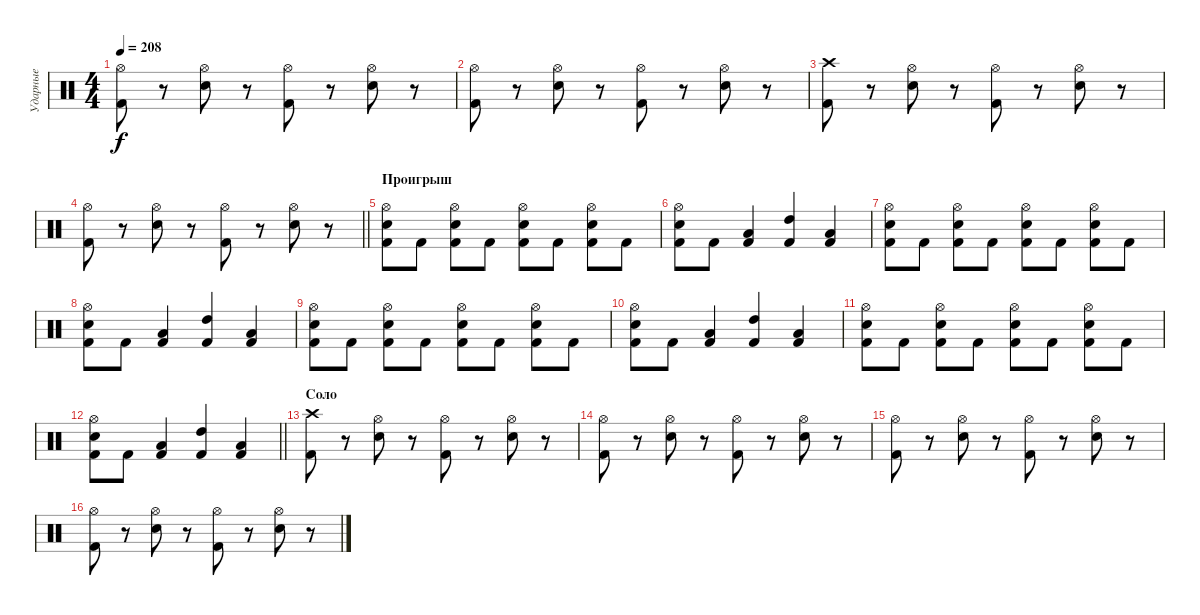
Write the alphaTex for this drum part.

\track ("Ударные" "Ударные") {instrument percussion}
\staff {score}
\articulation defaults
\ts (4 4)
\tempo 208
\clef neutral
\ks c
("Hi-Hat (open)" "Kick (hit) 2").8{dy f} r.8 ("Hi-Hat (open)" "Electric Snare (hit)").8 r.8 ("Hi-Hat (open)" "Kick (hit) 2").8 r.8 ("Hi-Hat (open)" "Electric Snare (hit)").8 r.8 |
("Hi-Hat (open)" "Kick (hit) 2").8 r.8 ("Hi-Hat (open)" "Electric Snare (hit)").8 r.8 ("Hi-Hat (open)" "Kick (hit) 2").8 r.8 ("Hi-Hat (open)" "Electric Snare (hit)").8 r.8 |
("Crash high (hit)" "Kick (hit) 2").8 r.8 ("Hi-Hat (open)" "Electric Snare (hit)").8 r.8 ("Hi-Hat (open)" "Kick (hit) 2").8 r.8 ("Hi-Hat (open)" "Electric Snare (hit)").8 r.8 |
\barLineRight lightlight
("Hi-Hat (open)" "Kick (hit) 2").8 r.8 ("Hi-Hat (open)" "Electric Snare (hit)").8 r.8 ("Hi-Hat (open)" "Kick (hit) 2").8 r.8 ("Hi-Hat (open)" "Electric Snare (hit)").8 r.8 |
\section ("" "Проигрыш")
("Hi-Hat (open)" "Kick (hit) 2" "Electric Snare (hit)").8 "Kick (hit) 2".8 ("Hi-Hat (open)" "Kick (hit) 2" "Electric Snare (hit)").8 "Kick (hit) 2".8 ("Hi-Hat (open)" "Kick (hit) 2" "Electric Snare (hit)").8 "Kick (hit) 2".8 ("Hi-Hat (open)" "Kick (hit) 2" "Electric Snare (hit)").8 "Kick (hit) 2".8 |
("Hi-Hat (open)" "Kick (hit) 2" "Electric Snare (hit)").8 "Kick (hit) 2".8 ("Low Tom (hit)" "Kick (hit) 2").4 ("High Tom (hit)" "Kick (hit) 2").4 ("Low Tom (hit)" "Kick (hit) 2").4 |
("Hi-Hat (open)" "Kick (hit) 2" "Electric Snare (hit)").8 "Kick (hit) 2".8 ("Hi-Hat (open)" "Kick (hit) 2" "Electric Snare (hit)").8 "Kick (hit) 2".8 ("Hi-Hat (open)" "Kick (hit) 2" "Electric Snare (hit)").8 "Kick (hit) 2".8 ("Hi-Hat (open)" "Kick (hit) 2" "Electric Snare (hit)").8 "Kick (hit) 2".8 |
("Hi-Hat (open)" "Kick (hit) 2" "Electric Snare (hit)").8 "Kick (hit) 2".8 ("Low Tom (hit)" "Kick (hit) 2").4 ("High Tom (hit)" "Kick (hit) 2").4 ("Low Tom (hit)" "Kick (hit) 2").4 |
("Hi-Hat (open)" "Kick (hit) 2" "Electric Snare (hit)").8 "Kick (hit) 2".8 ("Hi-Hat (open)" "Kick (hit) 2" "Electric Snare (hit)").8 "Kick (hit) 2".8 ("Hi-Hat (open)" "Kick (hit) 2" "Electric Snare (hit)").8 "Kick (hit) 2".8 ("Hi-Hat (open)" "Kick (hit) 2" "Electric Snare (hit)").8 "Kick (hit) 2".8 |
("Hi-Hat (open)" "Kick (hit) 2" "Electric Snare (hit)").8 "Kick (hit) 2".8 ("Low Tom (hit)" "Kick (hit) 2").4 ("High Tom (hit)" "Kick (hit) 2").4 ("Low Tom (hit)" "Kick (hit) 2").4 |
("Hi-Hat (open)" "Kick (hit) 2" "Electric Snare (hit)").8 "Kick (hit) 2".8 ("Hi-Hat (open)" "Kick (hit) 2" "Electric Snare (hit)").8 "Kick (hit) 2".8 ("Hi-Hat (open)" "Kick (hit) 2" "Electric Snare (hit)").8 "Kick (hit) 2".8 ("Hi-Hat (open)" "Kick (hit) 2" "Electric Snare (hit)").8 "Kick (hit) 2".8 |
\barLineRight lightlight
("Hi-Hat (open)" "Kick (hit) 2" "Electric Snare (hit)").8 "Kick (hit) 2".8 ("Low Tom (hit)" "Kick (hit) 2").4 ("High Tom (hit)" "Kick (hit) 2").4 ("Low Tom (hit)" "Kick (hit) 2").4 |
\section ("" "Соло")
("Crash high (hit)" "Kick (hit) 2").8 r.8 ("Hi-Hat (open)" "Electric Snare (hit)").8 r.8 ("Hi-Hat (open)" "Kick (hit) 2").8 r.8 ("Hi-Hat (open)" "Electric Snare (hit)").8 r.8 |
("Hi-Hat (open)" "Kick (hit) 2").8 r.8 ("Hi-Hat (open)" "Electric Snare (hit)").8 r.8 ("Hi-Hat (open)" "Kick (hit) 2").8 r.8 ("Hi-Hat (open)" "Electric Snare (hit)").8 r.8 |
("Hi-Hat (open)" "Kick (hit) 2").8 r.8 ("Hi-Hat (open)" "Electric Snare (hit)").8 r.8 ("Hi-Hat (open)" "Kick (hit) 2").8 r.8 ("Hi-Hat (open)" "Electric Snare (hit)").8 r.8 |
("Hi-Hat (open)" "Kick (hit) 2").8 r.8 ("Hi-Hat (open)" "Electric Snare (hit)").8 r.8 ("Hi-Hat (open)" "Kick (hit) 2").8 r.8 ("Hi-Hat (open)" "Electric Snare (hit)").8 r.8
